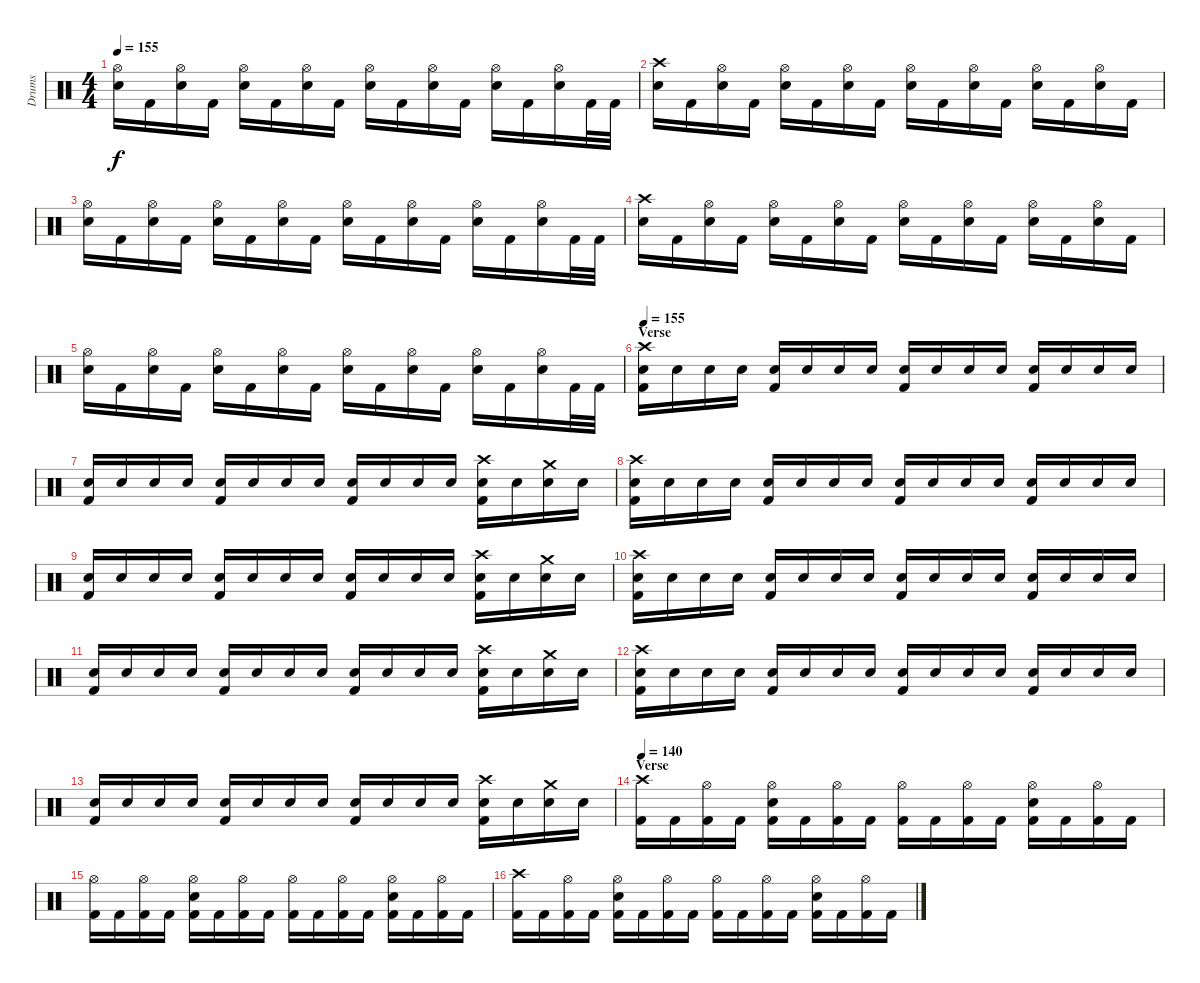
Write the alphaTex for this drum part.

\track ("Drums" "Drums") {instrument percussion}
\staff {score}
\articulation defaults
\ts (4 4)
\tempo 155
\clef neutral
\ks c
("Hi-Hat (open)" "Snare (hit) 2").16{dy f} "Kick (hit) 2".16 ("Hi-Hat (open)" "Snare (hit) 2").16 "Kick (hit) 2".16 ("Hi-Hat (open)" "Snare (hit) 2").16 "Kick (hit) 2".16 ("Hi-Hat (open)" "Snare (hit) 2").16 "Kick (hit) 2".16 ("Hi-Hat (open)" "Snare (hit) 2").16 "Kick (hit) 2".16 ("Hi-Hat (open)" "Snare (hit) 2").16 "Kick (hit) 2".16 ("Hi-Hat (open)" "Snare (hit) 2").16 "Kick (hit) 2".16 ("Hi-Hat (open)" "Snare (hit) 2").16 "Kick (hit) 2".32 "Kick (hit) 2".32 |
("Crash high (hit)" "Snare (hit) 2").16 "Kick (hit) 2".16 ("Hi-Hat (open)" "Snare (hit) 2").16 "Kick (hit) 2".16 ("Hi-Hat (open)" "Snare (hit) 2").16 "Kick (hit) 2".16 ("Hi-Hat (open)" "Snare (hit) 2").16 "Kick (hit) 2".16 ("Hi-Hat (open)" "Snare (hit) 2").16 "Kick (hit) 2".16 ("Hi-Hat (open)" "Snare (hit) 2").16 "Kick (hit) 2".16 ("Hi-Hat (open)" "Snare (hit) 2").16 "Kick (hit) 2".16 ("Hi-Hat (open)" "Snare (hit) 2").16 "Kick (hit) 2".16 |
("Hi-Hat (open)" "Snare (hit) 2").16 "Kick (hit) 2".16 ("Hi-Hat (open)" "Snare (hit) 2").16 "Kick (hit) 2".16 ("Hi-Hat (open)" "Snare (hit) 2").16 "Kick (hit) 2".16 ("Hi-Hat (open)" "Snare (hit) 2").16 "Kick (hit) 2".16 ("Hi-Hat (open)" "Snare (hit) 2").16 "Kick (hit) 2".16 ("Hi-Hat (open)" "Snare (hit) 2").16 "Kick (hit) 2".16 ("Hi-Hat (open)" "Snare (hit) 2").16 "Kick (hit) 2".16 ("Hi-Hat (open)" "Snare (hit) 2").16 "Kick (hit) 2".32 "Kick (hit) 2".32 |
("Crash high (hit)" "Snare (hit) 2").16 "Kick (hit) 2".16 ("Hi-Hat (open)" "Snare (hit) 2").16 "Kick (hit) 2".16 ("Hi-Hat (open)" "Snare (hit) 2").16 "Kick (hit) 2".16 ("Hi-Hat (open)" "Snare (hit) 2").16 "Kick (hit) 2".16 ("Hi-Hat (open)" "Snare (hit) 2").16 "Kick (hit) 2".16 ("Hi-Hat (open)" "Snare (hit) 2").16 "Kick (hit) 2".16 ("Hi-Hat (open)" "Snare (hit) 2").16 "Kick (hit) 2".16 ("Hi-Hat (open)" "Snare (hit) 2").16 "Kick (hit) 2".16 |
("Hi-Hat (open)" "Snare (hit) 2").16 "Kick (hit) 2".16 ("Hi-Hat (open)" "Snare (hit) 2").16 "Kick (hit) 2".16 ("Hi-Hat (open)" "Snare (hit) 2").16 "Kick (hit) 2".16 ("Hi-Hat (open)" "Snare (hit) 2").16 "Kick (hit) 2".16 ("Hi-Hat (open)" "Snare (hit) 2").16 "Kick (hit) 2".16 ("Hi-Hat (open)" "Snare (hit) 2").16 "Kick (hit) 2".16 ("Hi-Hat (open)" "Snare (hit) 2").16 "Kick (hit) 2".16 ("Hi-Hat (open)" "Snare (hit) 2").16 "Kick (hit) 2".32 "Kick (hit) 2".32 |
\section ("" "Verse")
\tempo 155
("Crash high (hit)" "Snare (hit) 2" "Kick (hit) 2").16 "Snare (hit) 2".16 "Snare (hit) 2".16 "Snare (hit) 2".16 ("Snare (hit) 2" "Kick (hit) 2").16 "Snare (hit) 2".16 "Snare (hit) 2".16 "Snare (hit) 2".16 ("Snare (hit) 2" "Kick (hit) 2").16 "Snare (hit) 2".16 "Snare (hit) 2".16 "Snare (hit) 2".16 ("Snare (hit) 2" "Kick (hit) 2").16 "Snare (hit) 2".16 "Snare (hit) 2".16 "Snare (hit) 2".16 |
("Snare (hit) 2" "Kick (hit) 2").16 "Snare (hit) 2".16 "Snare (hit) 2".16 "Snare (hit) 2".16 ("Snare (hit) 2" "Kick (hit) 2").16 "Snare (hit) 2".16 "Snare (hit) 2".16 "Snare (hit) 2".16 ("Snare (hit) 2" "Kick (hit) 2").16 "Snare (hit) 2".16 "Snare (hit) 2".16 "Snare (hit) 2".16 ("Crash high (hit)" "Snare (hit) 2" "Kick (hit) 2").16 "Snare (hit) 2".16 ("Crash medium (hit)" "Snare (hit) 2").16 "Snare (hit) 2".16 |
("Crash high (hit)" "Snare (hit) 2" "Kick (hit) 2").16 "Snare (hit) 2".16 "Snare (hit) 2".16 "Snare (hit) 2".16 ("Snare (hit) 2" "Kick (hit) 2").16 "Snare (hit) 2".16 "Snare (hit) 2".16 "Snare (hit) 2".16 ("Snare (hit) 2" "Kick (hit) 2").16 "Snare (hit) 2".16 "Snare (hit) 2".16 "Snare (hit) 2".16 ("Snare (hit) 2" "Kick (hit) 2").16 "Snare (hit) 2".16 "Snare (hit) 2".16 "Snare (hit) 2".16 |
("Snare (hit) 2" "Kick (hit) 2").16 "Snare (hit) 2".16 "Snare (hit) 2".16 "Snare (hit) 2".16 ("Snare (hit) 2" "Kick (hit) 2").16 "Snare (hit) 2".16 "Snare (hit) 2".16 "Snare (hit) 2".16 ("Snare (hit) 2" "Kick (hit) 2").16 "Snare (hit) 2".16 "Snare (hit) 2".16 "Snare (hit) 2".16 ("Crash high (hit)" "Snare (hit) 2" "Kick (hit) 2").16 "Snare (hit) 2".16 ("Crash medium (hit)" "Snare (hit) 2").16 "Snare (hit) 2".16 |
("Crash high (hit)" "Snare (hit) 2" "Kick (hit) 2").16 "Snare (hit) 2".16 "Snare (hit) 2".16 "Snare (hit) 2".16 ("Snare (hit) 2" "Kick (hit) 2").16 "Snare (hit) 2".16 "Snare (hit) 2".16 "Snare (hit) 2".16 ("Snare (hit) 2" "Kick (hit) 2").16 "Snare (hit) 2".16 "Snare (hit) 2".16 "Snare (hit) 2".16 ("Snare (hit) 2" "Kick (hit) 2").16 "Snare (hit) 2".16 "Snare (hit) 2".16 "Snare (hit) 2".16 |
("Snare (hit) 2" "Kick (hit) 2").16 "Snare (hit) 2".16 "Snare (hit) 2".16 "Snare (hit) 2".16 ("Snare (hit) 2" "Kick (hit) 2").16 "Snare (hit) 2".16 "Snare (hit) 2".16 "Snare (hit) 2".16 ("Snare (hit) 2" "Kick (hit) 2").16 "Snare (hit) 2".16 "Snare (hit) 2".16 "Snare (hit) 2".16 ("Crash high (hit)" "Snare (hit) 2" "Kick (hit) 2").16 "Snare (hit) 2".16 ("Crash medium (hit)" "Snare (hit) 2").16 "Snare (hit) 2".16 |
("Crash high (hit)" "Snare (hit) 2" "Kick (hit) 2").16 "Snare (hit) 2".16 "Snare (hit) 2".16 "Snare (hit) 2".16 ("Snare (hit) 2" "Kick (hit) 2").16 "Snare (hit) 2".16 "Snare (hit) 2".16 "Snare (hit) 2".16 ("Snare (hit) 2" "Kick (hit) 2").16 "Snare (hit) 2".16 "Snare (hit) 2".16 "Snare (hit) 2".16 ("Snare (hit) 2" "Kick (hit) 2").16 "Snare (hit) 2".16 "Snare (hit) 2".16 "Snare (hit) 2".16 |
("Snare (hit) 2" "Kick (hit) 2").16 "Snare (hit) 2".16 "Snare (hit) 2".16 "Snare (hit) 2".16 ("Snare (hit) 2" "Kick (hit) 2").16 "Snare (hit) 2".16 "Snare (hit) 2".16 "Snare (hit) 2".16 ("Snare (hit) 2" "Kick (hit) 2").16 "Snare (hit) 2".16 "Snare (hit) 2".16 "Snare (hit) 2".16 ("Crash high (hit)" "Snare (hit) 2" "Kick (hit) 2").16 "Snare (hit) 2".16 ("Crash medium (hit)" "Snare (hit) 2").16 "Snare (hit) 2".16 |
\section ("" "Verse")
\tempo 140
("Crash high (hit)" "Kick (hit) 2").16 "Kick (hit) 2".16 ("Hi-Hat (open)" "Kick (hit) 2").16 "Kick (hit) 2".16 ("Hi-Hat (open)" "Snare (hit) 2" "Kick (hit) 2").16 "Kick (hit) 2".16 ("Hi-Hat (open)" "Kick (hit) 2").16 "Kick (hit) 2".16 ("Hi-Hat (open)" "Kick (hit) 2").16 "Kick (hit) 2".16 ("Hi-Hat (open)" "Kick (hit) 2").16 "Kick (hit) 2".16 ("Hi-Hat (open)" "Snare (hit) 2" "Kick (hit) 2").16 "Kick (hit) 2".16 ("Hi-Hat (open)" "Kick (hit) 2").16 "Kick (hit) 2".16 |
("Hi-Hat (open)" "Kick (hit) 2").16 "Kick (hit) 2".16 ("Hi-Hat (open)" "Kick (hit) 2").16 "Kick (hit) 2".16 ("Hi-Hat (open)" "Snare (hit) 2" "Kick (hit) 2").16 "Kick (hit) 2".16 ("Hi-Hat (open)" "Kick (hit) 2").16 "Kick (hit) 2".16 ("Hi-Hat (open)" "Kick (hit) 2").16 "Kick (hit) 2".16 ("Hi-Hat (open)" "Kick (hit) 2").16 "Kick (hit) 2".16 ("Hi-Hat (open)" "Snare (hit) 2" "Kick (hit) 2").16 "Kick (hit) 2".16 ("Hi-Hat (open)" "Kick (hit) 2").16 "Kick (hit) 2".16 |
("Crash high (hit)" "Kick (hit) 2").16 "Kick (hit) 2".16 ("Hi-Hat (open)" "Kick (hit) 2").16 "Kick (hit) 2".16 ("Hi-Hat (open)" "Snare (hit) 2" "Kick (hit) 2").16 "Kick (hit) 2".16 ("Hi-Hat (open)" "Kick (hit) 2").16 "Kick (hit) 2".16 ("Hi-Hat (open)" "Kick (hit) 2").16 "Kick (hit) 2".16 ("Hi-Hat (open)" "Kick (hit) 2").16 "Kick (hit) 2".16 ("Hi-Hat (open)" "Snare (hit) 2" "Kick (hit) 2").16 "Kick (hit) 2".16 ("Hi-Hat (open)" "Kick (hit) 2").16 "Kick (hit) 2".16
